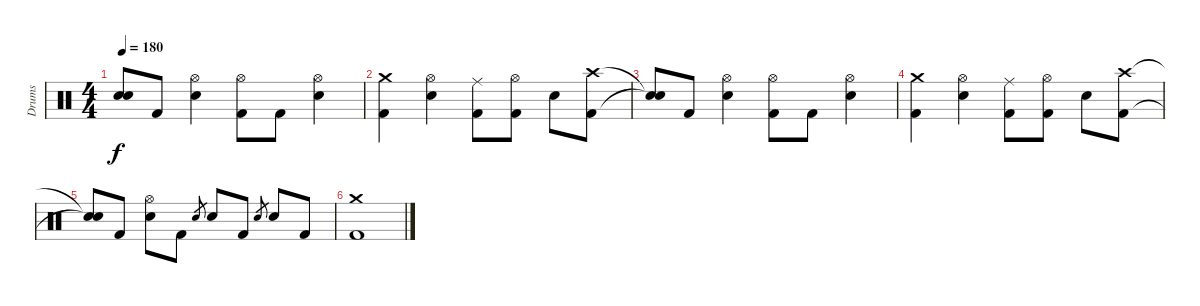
\track ("Drums" "Drums") {instrument percussion}
\staff {score}
\articulation defaults
\ts (4 4)
\tempo 180
\clef neutral
\ks c
("Snare (hit)"{t} "Snare (hit)"{t}).8{dy f} "Kick (hit) 2".8 ("Hi-Hat (open)" "Electric Snare (hit)").4 ("Hi-Hat (open)" "Kick (hit) 2").8 "Kick (hit) 2".8 ("Hi-Hat (open)" "Electric Snare (hit)").4 |
("Crash medium (hit)" "Kick (hit) 2").4 ("Hi-Hat (open)" "Electric Snare (hit)").4 ("Ride (middle)" "Kick (hit) 2").8 ("Hi-Hat (open)" "Kick (hit) 2").8 "Electric Snare (hit)".8 ("Crash high (hit)" "Kick (hit) 2").8 |
("Snare (hit)"{t} "Snare (hit)"{t}).8 "Kick (hit) 2".8 ("Hi-Hat (open)" "Electric Snare (hit)").4 ("Hi-Hat (open)" "Kick (hit) 2").8 "Kick (hit) 2".8 ("Hi-Hat (open)" "Electric Snare (hit)").4 |
("Crash medium (hit)" "Kick (hit) 2").4 ("Hi-Hat (open)" "Electric Snare (hit)").4 ("Ride (middle)" "Kick (hit) 2").8 ("Hi-Hat (open)" "Kick (hit) 2").8 "Electric Snare (hit)".8 ("Crash high (hit)" "Kick (hit) 2").8 |
("Snare (hit)"{t} "Snare (hit)"{t}).8 "Kick (hit) 2".8 ("Hi-Hat (open)" "Electric Snare (hit)").8 "Kick (hit) 2".8 "Electric Snare (hit)".8{gr} "Electric Snare (hit)".8 "Kick (hit) 2".8 "Electric Snare (hit)".8{gr} "Electric Snare (hit)".8 "Kick (hit) 2".8 |
("Crash medium (hit)" "Kick (hit) 2").1
